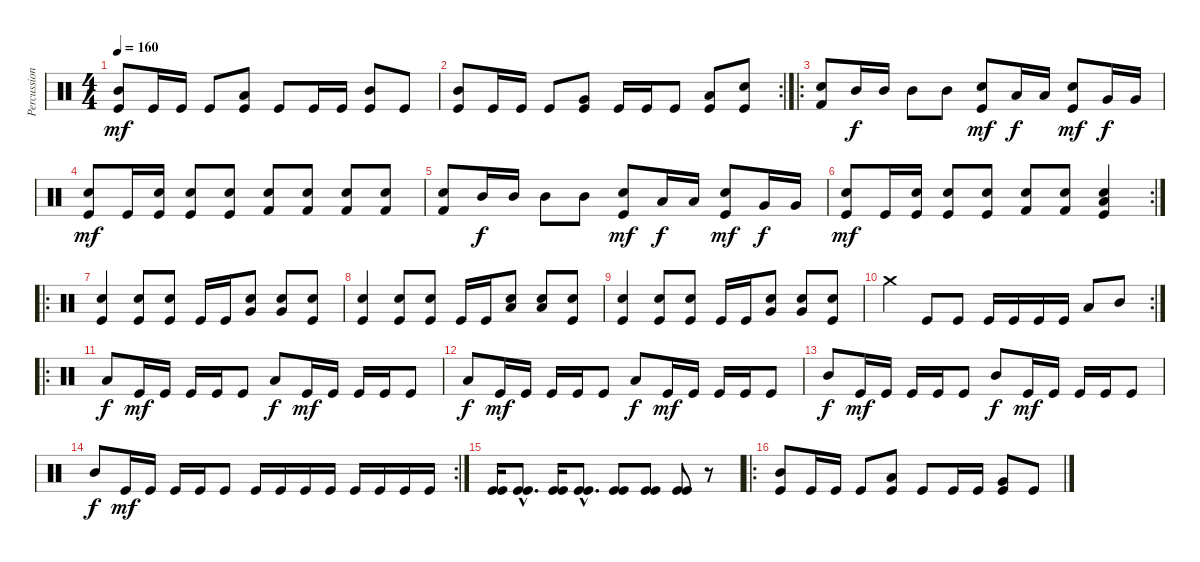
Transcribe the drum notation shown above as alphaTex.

\track ("Percussion" "Percussion") {instrument percussion}
\staff {score}
\articulation defaults
\ts (4 4)
\tempo 160
\clef neutral
\ks c
("Kick (hit)" "Mid Tom (hit)").8{dy mf} "Kick (hit)".16 "Kick (hit)".16 "Kick (hit)".8 ("Kick (hit)" "Low Tom (hit)").8 "Kick (hit)".8 "Kick (hit)".16 "Kick (hit)".16 ("Kick (hit)" "Mid Tom (hit)").8 "Kick (hit)".8 |
\rc 2
("Kick (hit)" "Mid Tom (hit)").8 "Kick (hit)".16 "Kick (hit)".16 "Kick (hit)".8 ("Kick (hit)" "Very Low Tom (hit)").8 "Kick (hit)".16 "Kick (hit)".16 "Kick (hit)".8 ("Kick (hit)" "Low Tom (hit)").8 ("Kick (hit)" "Electric Snare (hit)").8 |
\ro
("Electric Snare (hit)" "Kick (hit) 2").8 "Mid Tom (hit)".16{dy f} "Mid Tom (hit)".16 "Mid Tom (hit)".8 "Mid Tom (hit)".8 ("Electric Snare (hit)" "Kick (hit)").8{dy mf} "Low Tom (hit)".16{dy f} "Low Tom (hit)".16 ("Snare (hit) 2" "Kick (hit)").8{dy mf} "Very Low Tom (hit)".16{dy f} "Very Low Tom (hit)".16 |
("Electric Snare (hit)" "Kick (hit)").8{dy mf} "Kick (hit)".16 ("Snare (hit) 2" "Kick (hit)").16 ("Snare (hit) 2" "Kick (hit)").8 ("Snare (hit) 2" "Kick (hit)").8 ("Snare (hit) 2" "Kick (hit) 2").8 ("Snare (hit) 2" "Kick (hit) 2").8 ("Snare (hit) 2" "Kick (hit) 2").8 ("Electric Snare (hit)" "Kick (hit) 2").8 |
("Electric Snare (hit)" "Kick (hit) 2").8 "Mid Tom (hit)".16{dy f} "Mid Tom (hit)".16 "Mid Tom (hit)".8 "Mid Tom (hit)".8 ("Electric Snare (hit)" "Kick (hit)").8{dy mf} "Low Tom (hit)".16{dy f} "Low Tom (hit)".16 ("Snare (hit) 2" "Kick (hit)").8{dy mf} "Very Low Tom (hit)".16{dy f} "Very Low Tom (hit)".16 |
\rc 2
("Electric Snare (hit)" "Kick (hit)").8{dy mf} "Kick (hit)".16 ("Snare (hit) 2" "Kick (hit)").16 ("Snare (hit) 2" "Kick (hit)").8 ("Snare (hit) 2" "Kick (hit)").8 ("Snare (hit) 2" "Kick (hit) 2").8 ("Snare (hit) 2" "Kick (hit) 2").8 ("Snare (hit) 2" "Kick (hit)" "Low Tom (hit)").4 |
\ro
("Snare (hit) 2" "Kick (hit)").4 ("Snare (hit) 2" "Kick (hit)").8 ("Snare (hit) 2" "Kick (hit)").8 "Kick (hit)".16 "Kick (hit)".16 ("Snare (hit) 2" "Very Low Tom (hit)").8 ("Snare (hit) 2" "Very Low Tom (hit)").8 ("Snare (hit) 2" "Kick (hit)").8 |
("Electric Snare (hit)" "Kick (hit)").4 ("Electric Snare (hit)" "Kick (hit)").8 ("Electric Snare (hit)" "Kick (hit)").8 "Kick (hit)".16 "Kick (hit)".16 ("Electric Snare (hit)" "Low Tom (hit)").8 ("Electric Snare (hit)" "Low Tom (hit)").8 ("Electric Snare (hit)" "Kick (hit)").8 |
("Snare (hit) 2" "Kick (hit)").4 ("Snare (hit) 2" "Kick (hit)").8 ("Snare (hit) 2" "Kick (hit)").8 "Kick (hit)".16 "Kick (hit)".16 ("Snare (hit) 2" "Very Low Tom (hit)").8 ("Snare (hit) 2" "Very Low Tom (hit)").8 ("Snare (hit) 2" "Kick (hit)").8 |
\rc 2 "Crash medium (hit)".4 "Kick (hit)".8 "Kick (hit)".8 "Kick (hit)".16 "Kick (hit)".16 "Kick (hit)".16 "Kick (hit)".16 "Low Tom (hit)".8 "Mid Tom (hit)".8
|
\ro "Low Tom (hit)".8{dy f} "Kick (hit)".16{dy mf} "Kick (hit)".16 "Kick (hit)".16 "Kick (hit)".16 "Kick (hit)".8 "Low Tom (hit)".8{dy f} "Kick (hit)".16{dy mf} "Kick (hit)".16 "Kick (hit)".16 "Kick (hit)".16 "Kick (hit)".8
|
"Low Tom (hit)".8{dy f} "Kick (hit)".16{dy mf} "Kick (hit)".16 "Kick (hit)".16 "Kick (hit)".16 "Kick (hit)".8 "Low Tom (hit)".8{dy f} "Kick (hit)".16{dy mf} "Kick (hit)".16 "Kick (hit)".16 "Kick (hit)".16 "Kick (hit)".8 |
"Mid Tom (hit)".8{dy f} "Kick (hit)".16{dy mf} "Kick (hit)".16 "Kick (hit)".16 "Kick (hit)".16 "Kick (hit)".8 "Mid Tom (hit)".8{dy f} "Kick (hit)".16{dy mf} "Kick (hit)".16 "Kick (hit)".16 "Kick (hit)".16 "Kick (hit)".8 |
\rc 2 "Mid Tom (hit)".8{dy f} "Kick (hit)".16{dy mf} "Kick (hit)".16 "Kick (hit)".16 "Kick (hit)".16 "Kick (hit)".8 "Kick (hit)".16 "Kick (hit)".16 "Kick (hit)".16 "Kick (hit)".16 "Kick (hit)".16 "Kick (hit)".16 "Kick (hit)".16 "Kick (hit)".16
|
("Kick (hit)" "Kick (hit)").16 ("Kick (hit)"{hac} "Kick (hit)"{hac}).8{d} ("Kick (hit)" "Kick (hit)").16 ("Kick (hit)"{hac} "Kick (hit)"{hac}).8{d} ("Kick (hit)" "Kick (hit)").8 ("Kick (hit)" "Kick (hit)").8 ("Kick (hit)" "Kick (hit)").8 r.8 |
\ro
("Kick (hit)" "Mid Tom (hit)").8 "Kick (hit)".16 "Kick (hit)".16 "Kick (hit)".8 ("Kick (hit)" "Low Tom (hit)").8 "Kick (hit)".8 "Kick (hit)".16 "Kick (hit)".16 ("Kick (hit)" "Very Low Tom (hit)").8 "Kick (hit)".8
